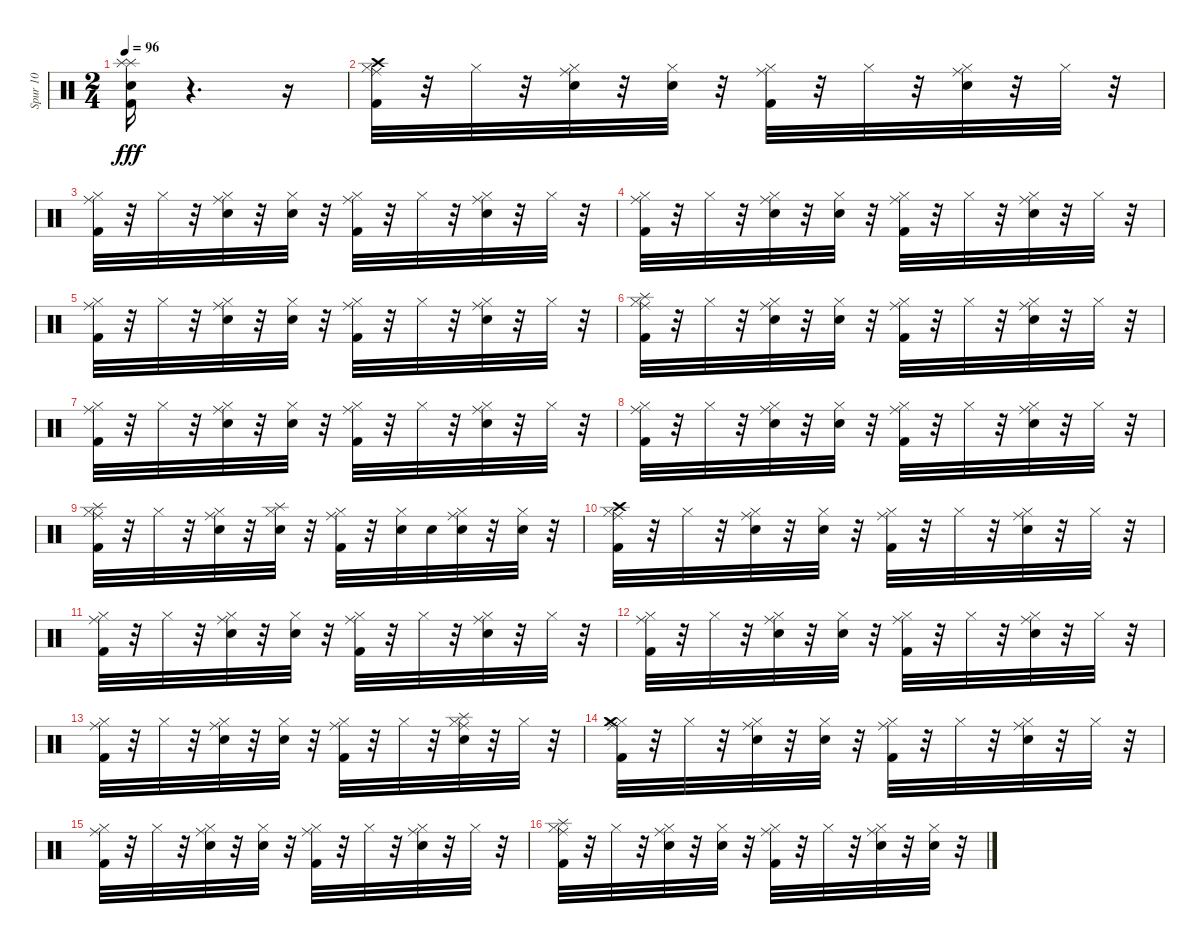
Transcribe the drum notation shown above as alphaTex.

\track ("Spur 10" "Spur 10") {instrument percussion}
\staff {score}
\articulation defaults
\ts (2 4)
\tempo 96
\clef neutral
\ks c
("Splash (hit)" "Kick (hit) 2" "Electric Snare (hit)" "Splash (hit)").16{dy fff} r.4{d} r.16 |
("Hi-Hat (closed)" "Crash high (hit)" "Kick (hit) 2" "Ride (middle)").32 r.32 "Hi-Hat (closed)".32 r.32 ("Hi-Hat (closed)" "Ride (middle)" "Electric Snare (hit)").32 r.32 ("Hi-Hat (closed)" "Electric Snare (hit)").32 r.32 ("Hi-Hat (closed)" "Kick (hit) 2" "Ride (middle)").32 r.32 "Hi-Hat (closed)".32 r.32 ("Hi-Hat (closed)" "Ride (middle)" "Electric Snare (hit)").32 r.32 "Hi-Hat (closed)".32 r.32 |
("Hi-Hat (closed)" "Kick (hit) 2" "Ride (middle)").32 r.32 "Hi-Hat (closed)".32 r.32 ("Hi-Hat (closed)" "Ride (middle)" "Electric Snare (hit)").32 r.32 ("Hi-Hat (closed)" "Electric Snare (hit)").32 r.32 ("Hi-Hat (closed)" "Kick (hit) 2" "Ride (middle)").32 r.32 "Hi-Hat (closed)".32 r.32 ("Hi-Hat (closed)" "Ride (middle)" "Electric Snare (hit)").32 r.32 "Hi-Hat (closed)".32 r.32 |
("Hi-Hat (closed)" "Ride (middle)" "Kick (hit) 2").32 r.32 "Hi-Hat (closed)".32 r.32 ("Hi-Hat (closed)" "Ride (middle)" "Electric Snare (hit)").32 r.32 ("Hi-Hat (closed)" "Electric Snare (hit)").32 r.32 ("Hi-Hat (closed)" "Ride (middle)" "Kick (hit) 2").32 r.32 "Hi-Hat (closed)".32 r.32 ("Hi-Hat (closed)" "Ride (middle)" "Electric Snare (hit)").32 r.32 "Hi-Hat (closed)".32 r.32 |
("Hi-Hat (closed)" "Ride (middle)" "Kick (hit) 2").32 r.32 "Hi-Hat (closed)".32 r.32 ("Hi-Hat (closed)" "Ride (middle)" "Electric Snare (hit)").32 r.32 ("Hi-Hat (closed)" "Electric Snare (hit)").32 r.32 ("Hi-Hat (closed)" "Ride (middle)" "Kick (hit) 2").32 r.32 "Hi-Hat (closed)".32 r.32 ("Hi-Hat (closed)" "Ride (middle)" "Electric Snare (hit)").32 r.32 "Hi-Hat (closed)".32 r.32 |
("Hi-Hat (closed)" "Splash (hit)" "Kick (hit) 2" "Ride (middle)").32 r.32 "Hi-Hat (closed)".32 r.32 ("Hi-Hat (closed)" "Ride (middle)" "Electric Snare (hit)").32 r.32 ("Hi-Hat (closed)" "Electric Snare (hit)").32 r.32 ("Hi-Hat (closed)" "Kick (hit) 2" "Ride (middle)").32 r.32 "Hi-Hat (closed)".32 r.32 ("Hi-Hat (closed)" "Ride (middle)" "Electric Snare (hit)").32 r.32 "Hi-Hat (closed)".32 r.32 |
("Hi-Hat (closed)" "Kick (hit) 2" "Ride (middle)").32 r.32 "Hi-Hat (closed)".32 r.32 ("Hi-Hat (closed)" "Ride (middle)" "Electric Snare (hit)").32 r.32 ("Hi-Hat (closed)" "Electric Snare (hit)").32 r.32 ("Hi-Hat (closed)" "Kick (hit) 2" "Ride (middle)").32 r.32 "Hi-Hat (closed)".32 r.32 ("Hi-Hat (closed)" "Ride (middle)" "Electric Snare (hit)").32 r.32 "Hi-Hat (closed)".32 r.32 |
("Hi-Hat (closed)" "Ride (middle)" "Kick (hit) 2").32 r.32 "Hi-Hat (closed)".32 r.32 ("Hi-Hat (closed)" "Ride (middle)" "Electric Snare (hit)").32 r.32 ("Hi-Hat (closed)" "Electric Snare (hit)").32 r.32 ("Hi-Hat (closed)" "Ride (middle)" "Kick (hit) 2").32 r.32 "Hi-Hat (closed)".32 r.32 ("Hi-Hat (closed)" "Ride (middle)" "Electric Snare (hit)").32 r.32 "Hi-Hat (closed)".32 r.32 |
("Hi-Hat (closed)" "Splash (hit)" "Ride (middle)" "Kick (hit) 2").32 r.32 "Hi-Hat (closed)".32 r.32 ("Hi-Hat (closed)" "Ride (middle)" "Electric Snare (hit)").32 r.32 ("Splash (hit)" "Hi-Hat (closed)" "Electric Snare (hit)").32 r.32 ("Hi-Hat (closed)" "Ride (middle)" "Kick (hit) 2").32 r.32 ("Hi-Hat (closed)" "Electric Snare (hit)").32 "Electric Snare (hit)".32 ("Hi-Hat (closed)" "Ride (middle)" "Electric Snare (hit)").32 r.32 ("Hi-Hat (closed)" "Electric Snare (hit)").32 r.32 |
("Hi-Hat (closed)" "Crash high (hit)" "Kick (hit) 2" "Ride (middle)").32 r.32 "Hi-Hat (closed)".32 r.32 ("Hi-Hat (closed)" "Ride (middle)" "Electric Snare (hit)").32 r.32 ("Hi-Hat (closed)" "Electric Snare (hit)").32 r.32 ("Hi-Hat (closed)" "Kick (hit) 2" "Ride (middle)").32 r.32 "Hi-Hat (closed)".32 r.32 ("Hi-Hat (closed)" "Ride (middle)" "Electric Snare (hit)").32 r.32 "Hi-Hat (closed)".32 r.32 |
("Hi-Hat (closed)" "Kick (hit) 2" "Ride (middle)").32 r.32 "Hi-Hat (closed)".32 r.32 ("Hi-Hat (closed)" "Ride (middle)" "Electric Snare (hit)").32 r.32 ("Hi-Hat (closed)" "Electric Snare (hit)").32 r.32 ("Hi-Hat (closed)" "Kick (hit) 2" "Ride (middle)").32 r.32 "Hi-Hat (closed)".32 r.32 ("Hi-Hat (closed)" "Ride (middle)" "Electric Snare (hit)").32 r.32 "Hi-Hat (closed)".32 r.32 |
("Hi-Hat (closed)" "Ride (middle)" "Kick (hit) 2").32 r.32 "Hi-Hat (closed)".32 r.32 ("Hi-Hat (closed)" "Ride (middle)" "Electric Snare (hit)").32 r.32 ("Hi-Hat (closed)" "Electric Snare (hit)").32 r.32 ("Hi-Hat (closed)" "Ride (middle)" "Kick (hit) 2").32 r.32 "Hi-Hat (closed)".32 r.32 ("Hi-Hat (closed)" "Ride (middle)" "Electric Snare (hit)").32 r.32 "Hi-Hat (closed)".32 r.32 |
("Hi-Hat (closed)" "Ride (middle)" "Kick (hit) 2").32 r.32 "Hi-Hat (closed)".32 r.32 ("Hi-Hat (closed)" "Ride (middle)" "Electric Snare (hit)").32 r.32 ("Hi-Hat (closed)" "Electric Snare (hit)").32 r.32 ("Hi-Hat (closed)" "Ride (middle)" "Kick (hit) 2").32 r.32 "Hi-Hat (closed)".32 r.32 ("Hi-Hat (closed)" "Splash (hit)" "Ride (middle)" "Electric Snare (hit)").32 r.32 "Hi-Hat (closed)".32 r.32 |
("Hi-Hat (closed)" "Crash medium (hit)" "Kick (hit) 2" "Ride (middle)").32 r.32 "Hi-Hat (closed)".32 r.32 ("Hi-Hat (closed)" "Ride (middle)" "Electric Snare (hit)").32 r.32 ("Hi-Hat (closed)" "Electric Snare (hit)").32 r.32 ("Hi-Hat (closed)" "Kick (hit) 2" "Ride (middle)").32 r.32 "Hi-Hat (closed)".32 r.32 ("Hi-Hat (closed)" "Ride (middle)" "Electric Snare (hit)").32 r.32 "Hi-Hat (closed)".32 r.32 |
("Hi-Hat (closed)" "Kick (hit) 2" "Ride (middle)").32 r.32 "Hi-Hat (closed)".32 r.32 ("Hi-Hat (closed)" "Ride (middle)" "Electric Snare (hit)").32 r.32 ("Hi-Hat (closed)" "Electric Snare (hit)").32 r.32 ("Hi-Hat (closed)" "Kick (hit) 2" "Ride (middle)").32 r.32 "Hi-Hat (closed)".32 r.32 ("Hi-Hat (closed)" "Ride (middle)" "Electric Snare (hit)").32 r.32 "Hi-Hat (closed)".32 r.32 |
("Hi-Hat (closed)" "Splash (hit)" "Ride (middle)" "Kick (hit) 2").32 r.32 "Hi-Hat (closed)".32 r.32 ("Hi-Hat (closed)" "Ride (middle)" "Electric Snare (hit)").32 r.32 ("Hi-Hat (closed)" "Electric Snare (hit)").32 r.32 ("Hi-Hat (closed)" "Ride (middle)" "Kick (hit) 2").32 r.32 "Hi-Hat (closed)".32 r.32 ("Hi-Hat (closed)" "Ride (middle)" "Electric Snare (hit)").32 r.32 ("Hi-Hat (closed)" "Electric Snare (hit)").32 r.32
